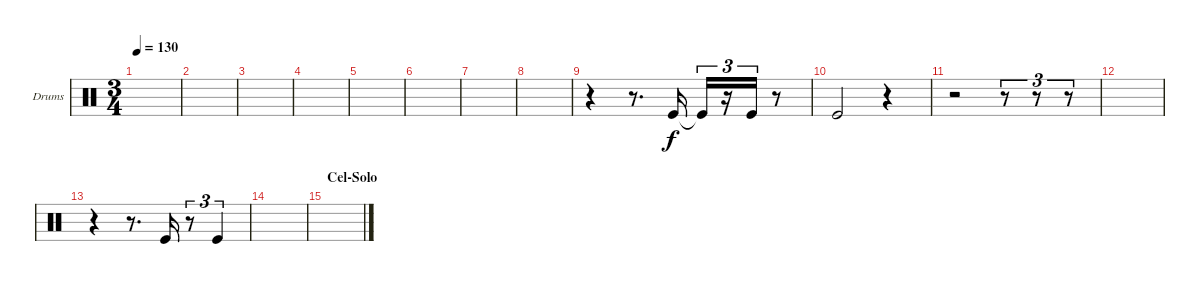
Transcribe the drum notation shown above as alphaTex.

\bracketExtendMode groupsimilarinstruments
\firstSystemTrackNameOrientation horizontal
\otherSystemsTrackNameOrientation horizontal
\track ("Kick" "Drums") {instrument percussion}
\staff {score}
\articulation defaults
\ts (3 4)
\tempo 130
\clef neutral
\ks c
|
|
|
|
|
|
|
|
r.4 r.8{d} "Kick (hit)".16 "Kick (hit)"{t}.16{tu (3 2)} r.16{tu (3 2)} "Kick (hit)".16{tu (3 2)} r.8 |
"Kick (hit)".2 r.4 |
r.2 r.8{tu (3 2)} r.8{tu (3 2)} r.8{tu (3 2)} |
|
r.4 r.8{d} "Kick (hit)".16 r.8{tu (3 2)} "Kick (hit)".4{tu (3 2)} |
|
\section ("" "Cel-Solo")
